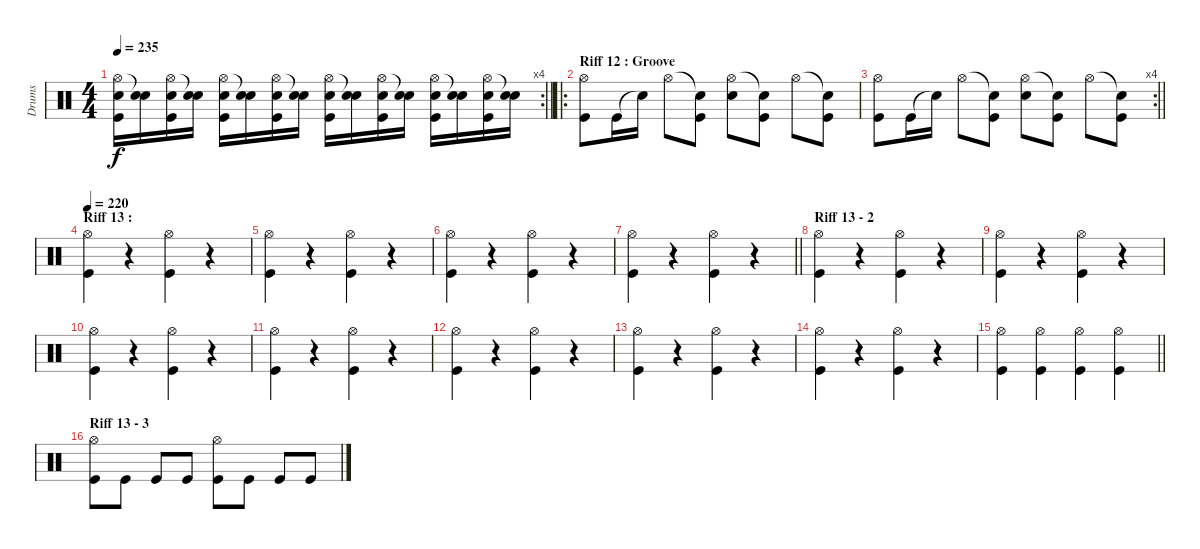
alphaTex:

\track ("Drums" "Drums") {instrument percussion}
\staff {score}
\articulation defaults
\rc 4
\ts (4 4)
\tempo 235
\clef neutral
\barLineRight lightlight
\ks c
("Hi-Hat (open)" "Electric Snare (hit)" "Kick (hit)").16{dy f} ("Snare (hit)"{t} "Electric Snare (hit)").16 ("Hi-Hat (open)" "Electric Snare (hit)" "Kick (hit)").16 ("Snare (hit)"{t} "Electric Snare (hit)").16 ("Hi-Hat (open)" "Electric Snare (hit)" "Kick (hit)").16 ("Snare (hit)"{t} "Electric Snare (hit)").16 ("Hi-Hat (open)" "Electric Snare (hit)" "Kick (hit)").16 ("Snare (hit)"{t} "Electric Snare (hit)").16 ("Hi-Hat (open)" "Electric Snare (hit)" "Kick (hit)").16 ("Snare (hit)"{t} "Electric Snare (hit)").16 ("Hi-Hat (open)" "Electric Snare (hit)" "Kick (hit)").16 ("Snare (hit)"{t} "Electric Snare (hit)").16 ("Hi-Hat (open)" "Electric Snare (hit)" "Kick (hit)").16 ("Snare (hit)"{t} "Electric Snare (hit)").16 ("Hi-Hat (open)" "Electric Snare (hit)" "Kick (hit)").16 ("Snare (hit)"{t} "Electric Snare (hit)").16 |
\ro
\section ("" "Riff 12 : Groove")
("Hi-Hat (open)" "Kick (hit)").8 "Kick (hit)".16 "Snare (hit)"{t}.16 "Hi-Hat (open)".8 ("Snare (hit)"{t} "Kick (hit)").8 ("Hi-Hat (open)" "Electric Snare (hit)").8 ("Snare (hit)"{t} "Kick (hit)").8 "Hi-Hat (open)".8 ("Snare (hit)"{t} "Kick (hit)").8 |
\rc 4
\barLineRight lightlight
("Hi-Hat (open)" "Kick (hit)").8 "Kick (hit)".16 "Snare (hit)"{t}.16 "Hi-Hat (open)".8 ("Snare (hit)"{t} "Kick (hit)").8 ("Hi-Hat (open)" "Electric Snare (hit)").8 ("Snare (hit)"{t} "Kick (hit)").8 "Hi-Hat (open)".8 ("Snare (hit)"{t} "Kick (hit)").8 |
\section ("" "Riff 13 : ")
\tempo 220
("Hi-Hat (open)" "Kick (hit)").4 r.4 ("Hi-Hat (open)" "Kick (hit)").4 r.4 |
("Hi-Hat (open)" "Kick (hit)").4 r.4 ("Hi-Hat (open)" "Kick (hit)").4 r.4 |
("Hi-Hat (open)" "Kick (hit)").4 r.4 ("Hi-Hat (open)" "Kick (hit)").4 r.4 |
\barLineRight lightlight
("Hi-Hat (open)" "Kick (hit)").4 r.4 ("Hi-Hat (open)" "Kick (hit)").4 r.4 |
\section ("" "Riff 13 - 2")
("Hi-Hat (open)" "Kick (hit)").4 r.4 ("Hi-Hat (open)" "Kick (hit)").4 r.4 |
("Hi-Hat (open)" "Kick (hit)").4 r.4 ("Hi-Hat (open)" "Kick (hit)").4 r.4 |
("Hi-Hat (open)" "Kick (hit)").4 r.4 ("Hi-Hat (open)" "Kick (hit)").4 r.4 |
("Hi-Hat (open)" "Kick (hit)").4 r.4 ("Hi-Hat (open)" "Kick (hit)").4 r.4 |
("Hi-Hat (open)" "Kick (hit)").4 r.4 ("Hi-Hat (open)" "Kick (hit)").4 r.4 |
("Hi-Hat (open)" "Kick (hit)").4 r.4 ("Hi-Hat (open)" "Kick (hit)").4 r.4 |
("Hi-Hat (open)" "Kick (hit)").4 r.4 ("Hi-Hat (open)" "Kick (hit)").4 r.4 |
\barLineRight lightlight
("Hi-Hat (open)" "Kick (hit)").4 ("Hi-Hat (open)" "Kick (hit)").4 ("Hi-Hat (open)" "Kick (hit)").4 ("Hi-Hat (open)" "Kick (hit)").4 |
\section ("" "Riff 13 - 3")
("Hi-Hat (open)" "Kick (hit)").8 "Kick (hit)".8 "Kick (hit)".8 "Kick (hit)".8 ("Hi-Hat (open)" "Kick (hit)").8 "Kick (hit)".8 "Kick (hit)".8 "Kick (hit)".8
